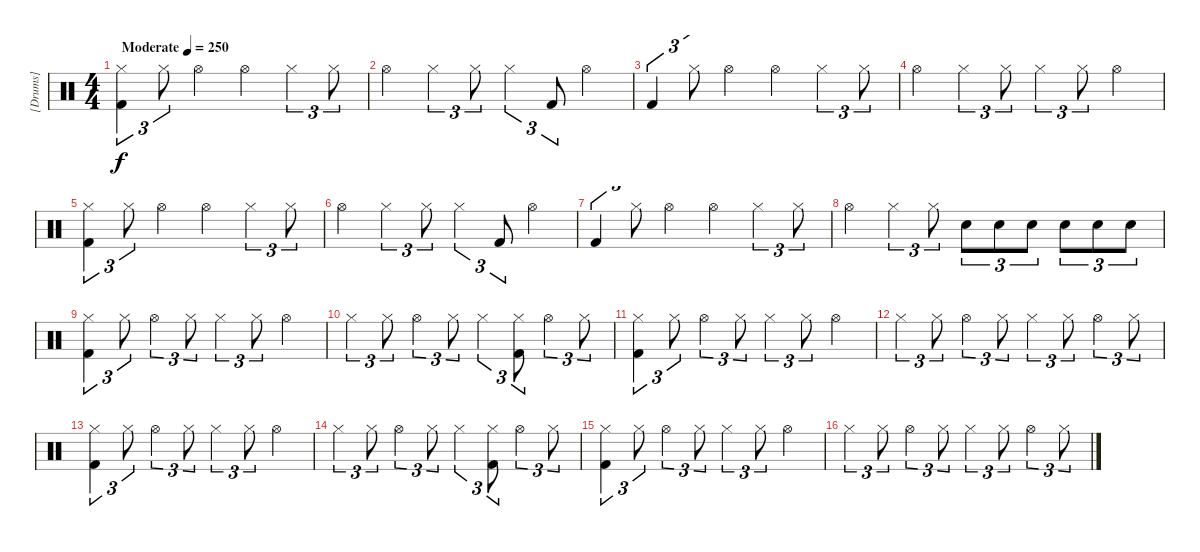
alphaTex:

\track ("[Drums]" "[Drums]") {instrument percussion}
\staff {score}
\articulation defaults
\ts (4 4)
\tempo (250 "Moderate")
\clef neutral
\ks c
("Hi-Hat (closed)" "Kick (hit) 2").4{tu (3 2) dy f} "Hi-Hat (closed)".8{tu (3 2)} "Hi-Hat (open)".4 "Hi-Hat (open)".4 "Hi-Hat (closed)".4{tu (3 2)} "Hi-Hat (closed)".8{tu (3 2)} |
"Hi-Hat (open)".4 "Hi-Hat (closed)".4{tu (3 2)} "Hi-Hat (closed)".8{tu (3 2)} "Hi-Hat (closed)".4{tu (3 2)} "Kick (hit) 2".8{tu (3 2)} "Hi-Hat (open)".4 |
"Kick (hit) 2".4{tu (3 2)} "Hi-Hat (closed)".8{tu (3 2)} "Hi-Hat (open)".4 "Hi-Hat (open)".4 "Hi-Hat (closed)".4{tu (3 2)} "Hi-Hat (closed)".8{tu (3 2)} |
"Hi-Hat (open)".4 "Hi-Hat (closed)".4{tu (3 2)} "Hi-Hat (closed)".8{tu (3 2)} "Hi-Hat (closed)".4{tu (3 2)} "Hi-Hat (closed)".8{tu (3 2)} "Hi-Hat (open)".4 |
("Hi-Hat (closed)" "Kick (hit) 2").4{tu (3 2)} "Hi-Hat (closed)".8{tu (3 2)} "Hi-Hat (open)".4 "Hi-Hat (open)".4 "Hi-Hat (closed)".4{tu (3 2)} "Hi-Hat (closed)".8{tu (3 2)} |
"Hi-Hat (open)".4 "Hi-Hat (closed)".4{tu (3 2)} "Hi-Hat (closed)".8{tu (3 2)} "Hi-Hat (closed)".4{tu (3 2)} "Kick (hit) 2".8{tu (3 2)} "Hi-Hat (open)".4 |
"Kick (hit) 2".4{tu (3 2)} "Hi-Hat (closed)".8{tu (3 2)} "Hi-Hat (open)".4 "Hi-Hat (open)".4 "Hi-Hat (closed)".4{tu (3 2)} "Hi-Hat (closed)".8{tu (3 2)} |
"Hi-Hat (open)".4 "Hi-Hat (closed)".4{tu (3 2)} "Hi-Hat (closed)".8{tu (3 2)} "Electric Snare (hit)".8{tu (3 2)} "Electric Snare (hit)".8{tu (3 2)} "Electric Snare (hit)".8{tu (3 2)} "Electric Snare (hit)".8{tu (3 2)} "Electric Snare (hit)".8{tu (3 2)} "Electric Snare (hit)".8{tu (3 2)} |
("Hi-Hat (closed)" "Kick (hit) 2").4{tu (3 2)} "Hi-Hat (closed)".8{tu (3 2)} "Hi-Hat (open)".4{tu (3 2)} "Hi-Hat (closed)".8{tu (3 2)} "Hi-Hat (closed)".4{tu (3 2)} "Hi-Hat (closed)".8{tu (3 2)} "Hi-Hat (open)".4 |
"Hi-Hat (closed)".4{tu (3 2)} "Hi-Hat (closed)".8{tu (3 2)} "Hi-Hat (open)".4{tu (3 2)} "Hi-Hat (closed)".8{tu (3 2)} "Hi-Hat (closed)".4{tu (3 2)} ("Hi-Hat (closed)" "Kick (hit) 2").8{tu (3 2)} "Hi-Hat (open)".4{tu (3 2)} "Hi-Hat (closed)".8{tu (3 2)} |
("Hi-Hat (closed)" "Kick (hit) 2").4{tu (3 2)} "Hi-Hat (closed)".8{tu (3 2)} "Hi-Hat (open)".4{tu (3 2)} "Hi-Hat (closed)".8{tu (3 2)} "Hi-Hat (closed)".4{tu (3 2)} "Hi-Hat (closed)".8{tu (3 2)} "Hi-Hat (open)".4 |
"Hi-Hat (closed)".4{tu (3 2)} "Hi-Hat (closed)".8{tu (3 2)} "Hi-Hat (open)".4{tu (3 2)} "Hi-Hat (closed)".8{tu (3 2)} "Hi-Hat (closed)".4{tu (3 2)} "Hi-Hat (closed)".8{tu (3 2)} "Hi-Hat (open)".4{tu (3 2)} "Hi-Hat (closed)".8{tu (3 2)} |
("Hi-Hat (closed)" "Kick (hit) 2").4{tu (3 2)} "Hi-Hat (closed)".8{tu (3 2)} "Hi-Hat (open)".4{tu (3 2)} "Hi-Hat (closed)".8{tu (3 2)} "Hi-Hat (closed)".4{tu (3 2)} "Hi-Hat (closed)".8{tu (3 2)} "Hi-Hat (open)".4 |
"Hi-Hat (closed)".4{tu (3 2)} "Hi-Hat (closed)".8{tu (3 2)} "Hi-Hat (open)".4{tu (3 2)} "Hi-Hat (closed)".8{tu (3 2)} "Hi-Hat (closed)".4{tu (3 2)} ("Hi-Hat (closed)" "Kick (hit) 2").8{tu (3 2)} "Hi-Hat (open)".4{tu (3 2)} "Hi-Hat (closed)".8{tu (3 2)} |
("Hi-Hat (closed)" "Kick (hit) 2").4{tu (3 2)} "Hi-Hat (closed)".8{tu (3 2)} "Hi-Hat (open)".4{tu (3 2)} "Hi-Hat (closed)".8{tu (3 2)} "Hi-Hat (closed)".4{tu (3 2)} "Hi-Hat (closed)".8{tu (3 2)} "Hi-Hat (open)".4 |
"Hi-Hat (closed)".4{tu (3 2)} "Hi-Hat (closed)".8{tu (3 2)} "Hi-Hat (open)".4{tu (3 2)} "Hi-Hat (closed)".8{tu (3 2)} "Hi-Hat (closed)".4{tu (3 2)} "Hi-Hat (closed)".8{tu (3 2)} "Hi-Hat (open)".4{tu (3 2)} "Hi-Hat (closed)".8{tu (3 2)}
